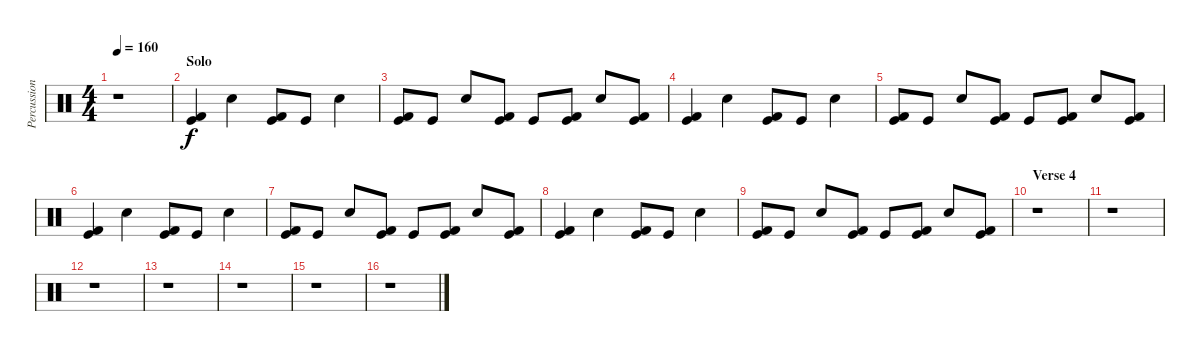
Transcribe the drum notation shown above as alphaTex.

\track ("Percussion" "Percussion") {instrument percussion}
\staff {score}
\articulation defaults
\ts (4 4)
\tempo 160
\clef neutral
\ks c
r.1{dy f} |
\section ("" "Solo")
("Kick (hit)" "Kick (hit) 2").4 "Electric Snare (hit)".4 ("Kick (hit)" "Kick (hit) 2").8 "Kick (hit)".8 "Electric Snare (hit)".4 |
("Kick (hit)" "Kick (hit) 2").8 "Kick (hit)".8 "Electric Snare (hit)".8 ("Kick (hit)" "Kick (hit) 2").8 "Kick (hit)".8 ("Kick (hit)" "Kick (hit) 2").8 "Electric Snare (hit)".8 ("Kick (hit)" "Kick (hit) 2").8 |
("Kick (hit)" "Kick (hit) 2").4 "Electric Snare (hit)".4 ("Kick (hit)" "Kick (hit) 2").8 "Kick (hit)".8 "Electric Snare (hit)".4 |
("Kick (hit)" "Kick (hit) 2").8 "Kick (hit)".8 "Electric Snare (hit)".8 ("Kick (hit)" "Kick (hit) 2").8 "Kick (hit)".8 ("Kick (hit)" "Kick (hit) 2").8 "Electric Snare (hit)".8 ("Kick (hit)" "Kick (hit) 2").8 |
("Kick (hit)" "Kick (hit) 2").4 "Electric Snare (hit)".4 ("Kick (hit)" "Kick (hit) 2").8 "Kick (hit)".8 "Electric Snare (hit)".4 |
("Kick (hit)" "Kick (hit) 2").8 "Kick (hit)".8 "Electric Snare (hit)".8 ("Kick (hit)" "Kick (hit) 2").8 "Kick (hit)".8 ("Kick (hit)" "Kick (hit) 2").8 "Electric Snare (hit)".8 ("Kick (hit)" "Kick (hit) 2").8 |
("Kick (hit)" "Kick (hit) 2").4 "Electric Snare (hit)".4 ("Kick (hit)" "Kick (hit) 2").8 "Kick (hit)".8 "Electric Snare (hit)".4 |
("Kick (hit)" "Kick (hit) 2").8 "Kick (hit)".8 "Electric Snare (hit)".8 ("Kick (hit)" "Kick (hit) 2").8 "Kick (hit)".8 ("Kick (hit)" "Kick (hit) 2").8 "Electric Snare (hit)".8 ("Kick (hit)" "Kick (hit) 2").8 |
\section ("" "Verse 4")
r.1 |
r.1 |
r.1 |
r.1 |
r.1 |
r.1 |
r.1
